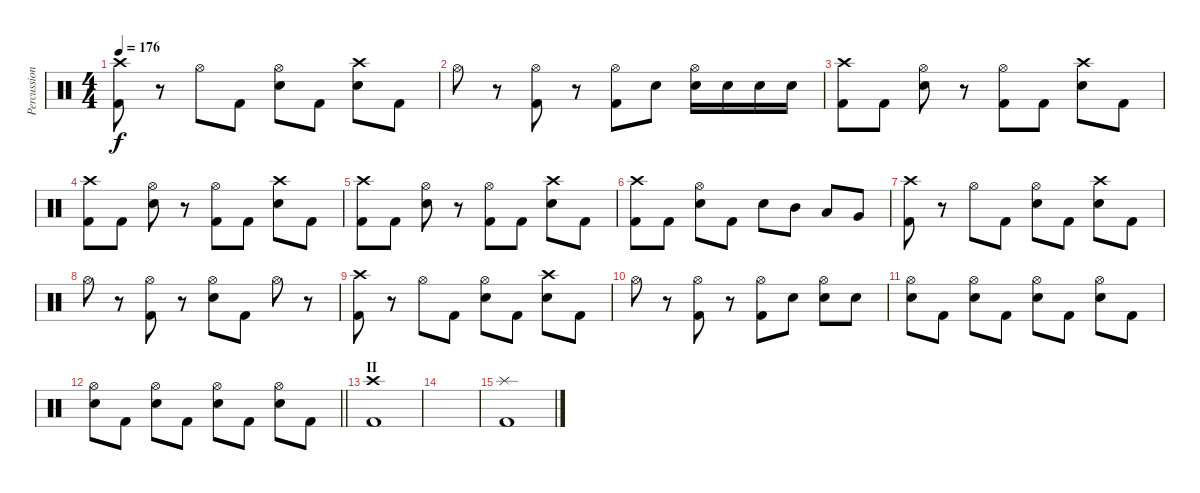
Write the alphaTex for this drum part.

\track ("Percussion" "Percussion") {instrument percussion}
\staff {score}
\articulation defaults
\ts (4 4)
\tempo 176
\clef neutral
\ks c
("Crash high (hit)" "Kick (hit) 2").8{dy f} r.8 "Hi-Hat (open)".8 "Kick (hit) 2".8 ("Hi-Hat (open)" "Electric Snare (hit)").8 "Kick (hit) 2".8 ("Crash high (hit)" "Electric Snare (hit)").8 "Kick (hit) 2".8 |
"Hi-Hat (open)".8 r.8 ("Hi-Hat (open)" "Kick (hit) 2").8 r.8 ("Hi-Hat (open)" "Kick (hit) 2").8 "Electric Snare (hit)".8 ("Hi-Hat (open)" "Electric Snare (hit)").16 "Electric Snare (hit)".16 "Electric Snare (hit)".16 "Electric Snare (hit)".16 |
("Crash high (hit)" "Kick (hit) 2").8 "Kick (hit) 2".8 ("Hi-Hat (open)" "Electric Snare (hit)").8 r.8 ("Hi-Hat (open)" "Kick (hit) 2").8 "Kick (hit) 2".8 ("Crash high (hit)" "Electric Snare (hit)").8 "Kick (hit) 2".8 |
("Crash high (hit)" "Kick (hit) 2").8 "Kick (hit) 2".8 ("Hi-Hat (open)" "Electric Snare (hit)").8 r.8 ("Hi-Hat (open)" "Kick (hit) 2").8 "Kick (hit) 2".8 ("Crash high (hit)" "Electric Snare (hit)").8 "Kick (hit) 2".8 |
("Crash high (hit)" "Kick (hit) 2").8 "Kick (hit) 2".8 ("Hi-Hat (open)" "Electric Snare (hit)").8 r.8 ("Hi-Hat (open)" "Kick (hit) 2").8 "Kick (hit) 2".8 ("Crash high (hit)" "Electric Snare (hit)").8 "Kick (hit) 2".8 |
("Crash high (hit)" "Kick (hit) 2").8 "Kick (hit) 2".8 ("Hi-Hat (open)" "Electric Snare (hit)").8 "Kick (hit) 2".8 "Electric Snare (hit)".8 "Mid Tom (hit)".8 "Low Tom (hit)".8 "Very Low Tom (hit)".8 |
("Crash high (hit)" "Kick (hit) 2").8 r.8 "Hi-Hat (open)".8 "Kick (hit) 2".8 ("Hi-Hat (open)" "Electric Snare (hit)").8 "Kick (hit) 2".8 ("Crash high (hit)" "Electric Snare (hit)").8 "Kick (hit) 2".8 |
"Hi-Hat (open)".8 r.8 ("Hi-Hat (open)" "Kick (hit) 2").8 r.8 ("Hi-Hat (open)" "Electric Snare (hit)").8 "Kick (hit) 2".8 "Hi-Hat (open)".8 r.8 |
("Crash high (hit)" "Kick (hit) 2").8 r.8 "Hi-Hat (open)".8 "Kick (hit) 2".8 ("Hi-Hat (open)" "Electric Snare (hit)").8 "Kick (hit) 2".8 ("Crash high (hit)" "Electric Snare (hit)").8 "Kick (hit) 2".8 |
"Hi-Hat (open)".8 r.8 ("Hi-Hat (open)" "Kick (hit) 2").8 r.8 ("Hi-Hat (open)" "Kick (hit) 2").8 "Electric Snare (hit)".8 ("Hi-Hat (open)" "Electric Snare (hit)").8 "Electric Snare (hit)".8 |
("Hi-Hat (open)" "Electric Snare (hit)").8 "Kick (hit) 2".8 ("Hi-Hat (open)" "Electric Snare (hit)").8 "Kick (hit) 2".8 ("Hi-Hat (open)" "Electric Snare (hit)").8 "Kick (hit) 2".8 ("Hi-Hat (open)" "Electric Snare (hit)").8 "Kick (hit) 2".8 |
\barLineRight lightlight
("Hi-Hat (open)" "Electric Snare (hit)").8 "Kick (hit) 2".8 ("Hi-Hat (open)" "Electric Snare (hit)").8 "Kick (hit) 2".8 ("Hi-Hat (open)" "Electric Snare (hit)").8 "Kick (hit) 2".8 ("Hi-Hat (open)" "Electric Snare (hit)").8 "Kick (hit) 2".8 |
\section ("" "II")
("Crash high (hit)" "Kick (hit) 2").1 |
|
("Splash (hit)" "Kick (hit) 2").1
